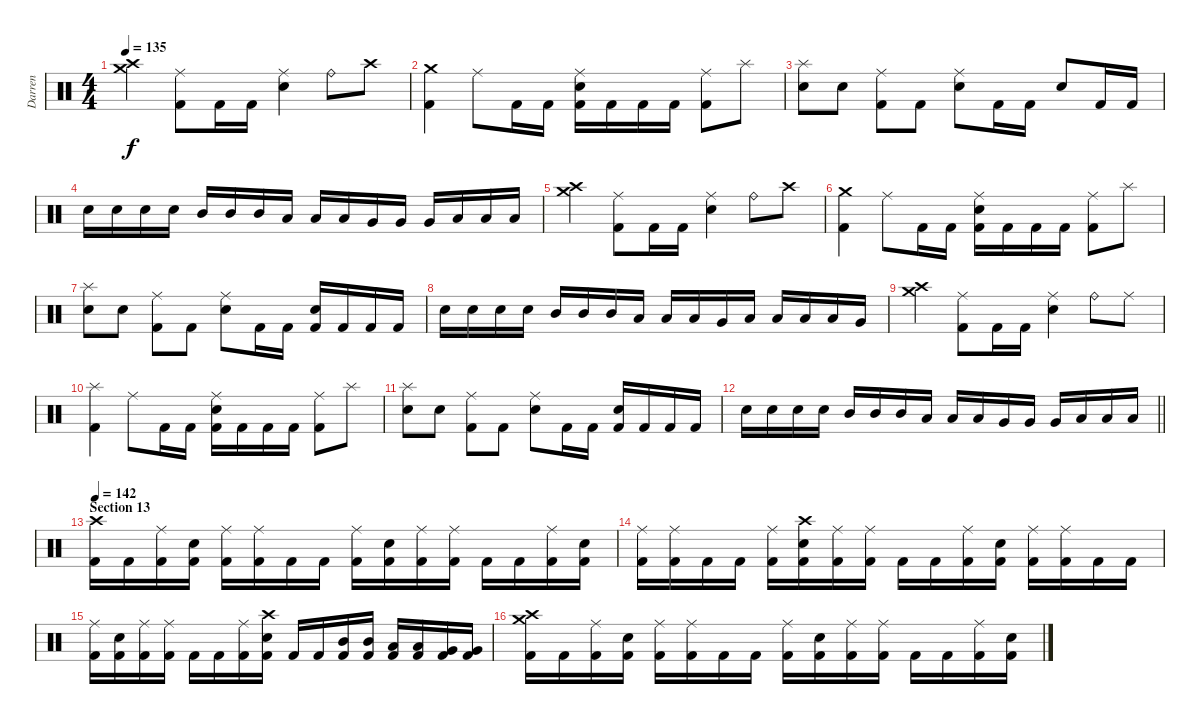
\track ("Darren" "Darren") {instrument percussion}
\staff {score}
\articulation defaults
\ts (4 4)
\tempo 135
\clef neutral
\ks c
("Crash medium (hit)" "Crash high (hit)").4{dy f} ("Ride (middle)" "Kick (hit) 2").8 "Kick (hit) 2".16 "Kick (hit) 2".16 ("Ride (middle)" "Electric Snare (hit)").4 "Ride (bell)".8 "Crash high (hit)".8 |
("Crash medium (hit)" "Kick (hit) 2").4 "Ride (middle)".8 "Kick (hit) 2".16 "Kick (hit) 2".16 ("Ride (middle)" "Electric Snare (hit)" "Kick (hit) 2").16 "Kick (hit) 2".16 "Kick (hit) 2".16 "Kick (hit) 2".16 ("Ride (middle)" "Kick (hit) 2").8 "Splash (hit)".8 |
("Splash (hit)" "Electric Snare (hit)").8 "Electric Snare (hit)".8 ("Ride (middle)" "Kick (hit) 2").8 "Kick (hit) 2".8 ("Ride (middle)" "Electric Snare (hit)").8 "Kick (hit) 2".16 "Kick (hit) 2".16 "Electric Snare (hit)".8 "Kick (hit) 2".16 "Kick (hit) 2".16 |
"Electric Snare (hit)".16 "Electric Snare (hit)".16 "Electric Snare (hit)".16 "Electric Snare (hit)".16 "Mid Tom (hit)".16 "Mid Tom (hit)".16 "Mid Tom (hit)".16 "Low Tom (hit)".16 "Low Tom (hit)".16 "Low Tom (hit)".16 "Very Low Tom (hit)".16 "Very Low Tom (hit)".16 "Very Low Tom (hit)".16 "Low Floor Tom (hit)".16 "Low Floor Tom (hit)".16 "Low Floor Tom (hit)".16 |
("Crash medium (hit)" "Crash high (hit)").4 ("Ride (middle)" "Kick (hit) 2").8 "Kick (hit) 2".16 "Kick (hit) 2".16 ("Ride (middle)" "Electric Snare (hit)").4 "Ride (bell)".8 "Crash high (hit)".8 |
("Crash medium (hit)" "Kick (hit) 2").4 "Ride (middle)".8 "Kick (hit) 2".16 "Kick (hit) 2".16 ("Ride (middle)" "Electric Snare (hit)" "Kick (hit) 2").16 "Kick (hit) 2".16 "Kick (hit) 2".16 "Kick (hit) 2".16 ("Ride (middle)" "Kick (hit) 2").8 "Splash (hit)".8 |
("Splash (hit)" "Electric Snare (hit)").8 "Electric Snare (hit)".8 ("Ride (middle)" "Kick (hit) 2").8 "Kick (hit) 2".8 ("Ride (middle)" "Electric Snare (hit)").8 "Kick (hit) 2".16 "Kick (hit) 2".16 ("Electric Snare (hit)" "Kick (hit) 2").16 "Kick (hit) 2".16 "Kick (hit) 2".16 "Kick (hit) 2".16 |
"Electric Snare (hit)".16 "Electric Snare (hit)".16 "Electric Snare (hit)".16 "Electric Snare (hit)".16 "Mid Tom (hit)".16 "Mid Tom (hit)".16 "Mid Tom (hit)".16 "Low Tom (hit)".16 "Low Tom (hit)".16 "Low Tom (hit)".16 "Very Low Tom (hit)".16 "Low Tom (hit)".16 "Low Floor Tom (hit)".16 "Low Floor Tom (hit)".16 "Low Floor Tom (hit)".16 "Very Low Tom (hit)".16 |
("Crash medium (hit)" "Crash high (hit)").4 ("Ride (middle)" "Kick (hit) 2").8 "Kick (hit) 2".16 "Kick (hit) 2".16 ("Ride (middle)" "Electric Snare (hit)").4 "Ride (bell)".8 "Ride (middle)".8 |
("Splash (hit)" "Kick (hit) 2").4 "Ride (middle)".8 "Kick (hit) 2".16 "Kick (hit) 2".16 ("Ride (middle)" "Electric Snare (hit)" "Kick (hit) 2").16 "Kick (hit) 2".16 "Kick (hit) 2".16 "Kick (hit) 2".16 ("Ride (middle)" "Kick (hit) 2").8 "Splash (hit)".8 |
("Splash (hit)" "Electric Snare (hit)").8 "Electric Snare (hit)".8 ("Ride (middle)" "Kick (hit) 2").8 "Kick (hit) 2".8 ("Ride (middle)" "Electric Snare (hit)").8 "Kick (hit) 2".16 "Kick (hit) 2".16 ("Electric Snare (hit)" "Kick (hit) 2").16 "Kick (hit) 2".16 "Kick (hit) 2".16 "Kick (hit) 2".16 |
\barLineRight lightlight "Electric Snare (hit)".16 "Electric Snare (hit)".16 "Electric Snare (hit)".16 "Electric Snare (hit)".16 "Mid Tom (hit)".16 "Mid Tom (hit)".16 "Mid Tom (hit)".16 "Low Tom (hit)".16 "Low Tom (hit)".16 "Low Tom (hit)".16 "Very Low Tom (hit)".16 "Very Low Tom (hit)".16 "Very Low Tom (hit)".16 "Low Floor Tom (hit)".16 "Low Floor Tom (hit)".16 "Low Floor Tom (hit)".16
|
\section ("" "Section 13")
\tempo 142
("Crash high (hit)" "Kick (hit) 2").16 "Kick (hit) 2".16 ("Ride (middle)" "Kick (hit) 2").16 ("Electric Snare (hit)" "Kick (hit) 2").16 ("Ride (middle)" "Kick (hit) 2").16 ("Ride (middle)" "Kick (hit) 2").16 "Kick (hit) 2".16 "Kick (hit) 2".16 ("Ride (middle)" "Kick (hit) 2").16 ("Electric Snare (hit)" "Kick (hit) 2").16 ("Ride (middle)" "Kick (hit) 2").16 ("Ride (middle)" "Kick (hit) 2").16 "Kick (hit) 2".16 "Kick (hit) 2".16 ("Ride (middle)" "Kick (hit) 2").16 ("Electric Snare (hit)" "Kick (hit) 2").16 |
("Ride (middle)" "Kick (hit) 2").16 ("Ride (middle)" "Kick (hit) 2").16 "Kick (hit) 2".16 "Kick (hit) 2".16 ("Ride (middle)" "Kick (hit) 2").16 ("Crash high (hit)" "Electric Snare (hit)" "Kick (hit) 2").16 ("Ride (middle)" "Kick (hit) 2").16 ("Ride (middle)" "Kick (hit) 2").16 "Kick (hit) 2".16 "Kick (hit) 2".16 ("Ride (middle)" "Kick (hit) 2").16 ("Electric Snare (hit)" "Kick (hit) 2").16 ("Ride (middle)" "Kick (hit) 2").16 ("Ride (middle)" "Kick (hit) 2").16 "Kick (hit) 2".16 "Kick (hit) 2".16 |
("Ride (middle)" "Kick (hit) 2").16 ("Electric Snare (hit)" "Kick (hit) 2").16 ("Ride (middle)" "Kick (hit) 2").16 ("Ride (middle)" "Kick (hit) 2").16 "Kick (hit) 2".16 "Kick (hit) 2".16 ("Ride (middle)" "Kick (hit) 2").16 ("Crash high (hit)" "Electric Snare (hit)" "Kick (hit) 2").16 "Kick (hit) 2".16 "Kick (hit) 2".16 ("Mid Tom (hit)" "Kick (hit) 2").16 ("Mid Tom (hit)" "Kick (hit) 2").16 ("Low Tom (hit)" "Kick (hit) 2").16 ("Low Tom (hit)" "Kick (hit) 2").16 ("Very Low Tom (hit)" "Kick (hit) 2").16 ("Very Low Tom (hit)" "Kick (hit) 2").16 |
("Crash medium (hit)" "Crash high (hit)" "Kick (hit) 2").16 "Kick (hit) 2".16 ("Ride (middle)" "Kick (hit) 2").16 ("Electric Snare (hit)" "Kick (hit) 2").16 ("Ride (middle)" "Kick (hit) 2").16 ("Ride (middle)" "Kick (hit) 2").16 "Kick (hit) 2".16 "Kick (hit) 2".16 ("Ride (middle)" "Kick (hit) 2").16 ("Electric Snare (hit)" "Kick (hit) 2").16 ("Ride (middle)" "Kick (hit) 2").16 ("Ride (middle)" "Kick (hit) 2").16 "Kick (hit) 2".16 "Kick (hit) 2".16 ("Ride (middle)" "Kick (hit) 2").16 ("Electric Snare (hit)" "Kick (hit) 2").16
